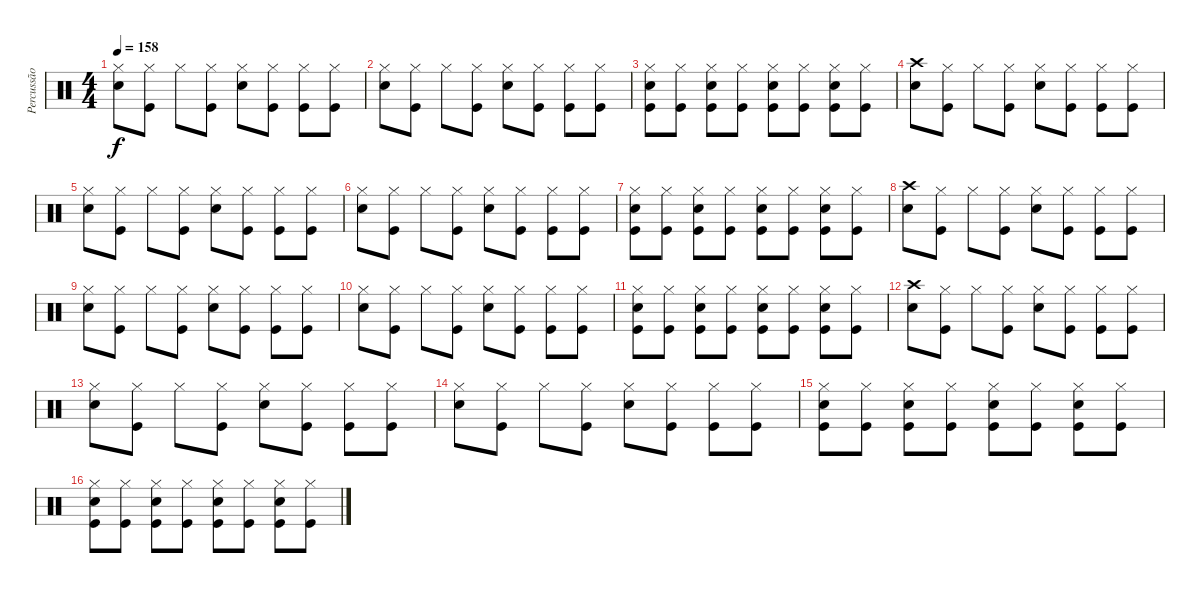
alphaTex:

\track ("Percussão" "Percussão") {instrument percussion}
\staff {score}
\articulation defaults
\ts (4 4)
\tempo 158
\clef neutral
\ks c
("Hi-Hat (closed)" "Electric Snare (hit)").8{dy f} ("Hi-Hat (closed)" "Kick (hit)").8 "Hi-Hat (closed)".8 ("Hi-Hat (closed)" "Kick (hit)").8 ("Hi-Hat (closed)" "Electric Snare (hit)").8 ("Hi-Hat (closed)" "Kick (hit)").8 ("Hi-Hat (closed)" "Kick (hit)").8 ("Hi-Hat (closed)" "Kick (hit)").8 |
("Hi-Hat (closed)" "Electric Snare (hit)").8 ("Hi-Hat (closed)" "Kick (hit)").8 "Hi-Hat (closed)".8 ("Hi-Hat (closed)" "Kick (hit)").8 ("Hi-Hat (closed)" "Electric Snare (hit)").8 ("Hi-Hat (closed)" "Kick (hit)").8 ("Hi-Hat (closed)" "Kick (hit)").8 ("Hi-Hat (closed)" "Kick (hit)").8 |
("Hi-Hat (closed)" "Electric Snare (hit)" "Kick (hit)").8 ("Hi-Hat (closed)" "Kick (hit)").8 ("Hi-Hat (closed)" "Electric Snare (hit)" "Kick (hit)").8 ("Hi-Hat (closed)" "Kick (hit)").8 ("Hi-Hat (closed)" "Electric Snare (hit)" "Kick (hit)").8 ("Hi-Hat (closed)" "Kick (hit)").8 ("Hi-Hat (closed)" "Electric Snare (hit)" "Kick (hit)").8 ("Hi-Hat (closed)" "Kick (hit)").8 |
("Crash high (hit)" "Electric Snare (hit)").8 ("Hi-Hat (closed)" "Kick (hit)").8 "Hi-Hat (closed)".8 ("Hi-Hat (closed)" "Kick (hit)").8 ("Hi-Hat (closed)" "Electric Snare (hit)").8 ("Hi-Hat (closed)" "Kick (hit)").8 ("Hi-Hat (closed)" "Kick (hit)").8 ("Hi-Hat (closed)" "Kick (hit)").8 |
("Hi-Hat (closed)" "Electric Snare (hit)").8 ("Hi-Hat (closed)" "Kick (hit)").8 "Hi-Hat (closed)".8 ("Hi-Hat (closed)" "Kick (hit)").8 ("Hi-Hat (closed)" "Electric Snare (hit)").8 ("Hi-Hat (closed)" "Kick (hit)").8 ("Hi-Hat (closed)" "Kick (hit)").8 ("Hi-Hat (closed)" "Kick (hit)").8 |
("Hi-Hat (closed)" "Electric Snare (hit)").8 ("Hi-Hat (closed)" "Kick (hit)").8 "Hi-Hat (closed)".8 ("Hi-Hat (closed)" "Kick (hit)").8 ("Hi-Hat (closed)" "Electric Snare (hit)").8 ("Hi-Hat (closed)" "Kick (hit)").8 ("Hi-Hat (closed)" "Kick (hit)").8 ("Hi-Hat (closed)" "Kick (hit)").8 |
("Hi-Hat (closed)" "Electric Snare (hit)" "Kick (hit)").8 ("Hi-Hat (closed)" "Kick (hit)").8 ("Hi-Hat (closed)" "Electric Snare (hit)" "Kick (hit)").8 ("Hi-Hat (closed)" "Kick (hit)").8 ("Hi-Hat (closed)" "Electric Snare (hit)" "Kick (hit)").8 ("Hi-Hat (closed)" "Kick (hit)").8 ("Hi-Hat (closed)" "Electric Snare (hit)" "Kick (hit)").8 ("Hi-Hat (closed)" "Kick (hit)").8 |
("Crash high (hit)" "Electric Snare (hit)").8 ("Hi-Hat (closed)" "Kick (hit)").8 "Hi-Hat (closed)".8 ("Hi-Hat (closed)" "Kick (hit)").8 ("Hi-Hat (closed)" "Electric Snare (hit)").8 ("Hi-Hat (closed)" "Kick (hit)").8 ("Hi-Hat (closed)" "Kick (hit)").8 ("Hi-Hat (closed)" "Kick (hit)").8 |
("Hi-Hat (closed)" "Electric Snare (hit)").8 ("Hi-Hat (closed)" "Kick (hit)").8 "Hi-Hat (closed)".8 ("Hi-Hat (closed)" "Kick (hit)").8 ("Hi-Hat (closed)" "Electric Snare (hit)").8 ("Hi-Hat (closed)" "Kick (hit)").8 ("Hi-Hat (closed)" "Kick (hit)").8 ("Hi-Hat (closed)" "Kick (hit)").8 |
("Hi-Hat (closed)" "Electric Snare (hit)").8 ("Hi-Hat (closed)" "Kick (hit)").8 "Hi-Hat (closed)".8 ("Hi-Hat (closed)" "Kick (hit)").8 ("Hi-Hat (closed)" "Electric Snare (hit)").8 ("Hi-Hat (closed)" "Kick (hit)").8 ("Hi-Hat (closed)" "Kick (hit)").8 ("Hi-Hat (closed)" "Kick (hit)").8 |
("Hi-Hat (closed)" "Electric Snare (hit)" "Kick (hit)").8 ("Hi-Hat (closed)" "Kick (hit)").8 ("Hi-Hat (closed)" "Electric Snare (hit)" "Kick (hit)").8 ("Hi-Hat (closed)" "Kick (hit)").8 ("Hi-Hat (closed)" "Electric Snare (hit)" "Kick (hit)").8 ("Hi-Hat (closed)" "Kick (hit)").8 ("Hi-Hat (closed)" "Electric Snare (hit)" "Kick (hit)").8 ("Hi-Hat (closed)" "Kick (hit)").8 |
("Crash high (hit)" "Electric Snare (hit)").8 ("Hi-Hat (closed)" "Kick (hit)").8 "Hi-Hat (closed)".8 ("Hi-Hat (closed)" "Kick (hit)").8 ("Hi-Hat (closed)" "Electric Snare (hit)").8 ("Hi-Hat (closed)" "Kick (hit)").8 ("Hi-Hat (closed)" "Kick (hit)").8 ("Hi-Hat (closed)" "Kick (hit)").8 |
("Hi-Hat (closed)" "Electric Snare (hit)").8 ("Hi-Hat (closed)" "Kick (hit)").8 "Hi-Hat (closed)".8 ("Hi-Hat (closed)" "Kick (hit)").8 ("Hi-Hat (closed)" "Electric Snare (hit)").8 ("Hi-Hat (closed)" "Kick (hit)").8 ("Hi-Hat (closed)" "Kick (hit)").8 ("Hi-Hat (closed)" "Kick (hit)").8 |
("Hi-Hat (closed)" "Electric Snare (hit)").8 ("Hi-Hat (closed)" "Kick (hit)").8 "Hi-Hat (closed)".8 ("Hi-Hat (closed)" "Kick (hit)").8 ("Hi-Hat (closed)" "Electric Snare (hit)").8 ("Hi-Hat (closed)" "Kick (hit)").8 ("Hi-Hat (closed)" "Kick (hit)").8 ("Hi-Hat (closed)" "Kick (hit)").8 |
("Hi-Hat (closed)" "Electric Snare (hit)" "Kick (hit)").8 ("Hi-Hat (closed)" "Kick (hit)").8 ("Hi-Hat (closed)" "Electric Snare (hit)" "Kick (hit)").8 ("Hi-Hat (closed)" "Kick (hit)").8 ("Hi-Hat (closed)" "Electric Snare (hit)" "Kick (hit)").8 ("Hi-Hat (closed)" "Kick (hit)").8 ("Hi-Hat (closed)" "Electric Snare (hit)" "Kick (hit)").8 ("Hi-Hat (closed)" "Kick (hit)").8 |
("Hi-Hat (closed)" "Electric Snare (hit)" "Kick (hit)").8 ("Hi-Hat (closed)" "Kick (hit)").8 ("Hi-Hat (closed)" "Electric Snare (hit)" "Kick (hit)").8 ("Hi-Hat (closed)" "Kick (hit)").8 ("Hi-Hat (closed)" "Electric Snare (hit)" "Kick (hit)").8 ("Hi-Hat (closed)" "Kick (hit)").8 ("Hi-Hat (closed)" "Electric Snare (hit)" "Kick (hit)").8 ("Hi-Hat (closed)" "Kick (hit)").8
